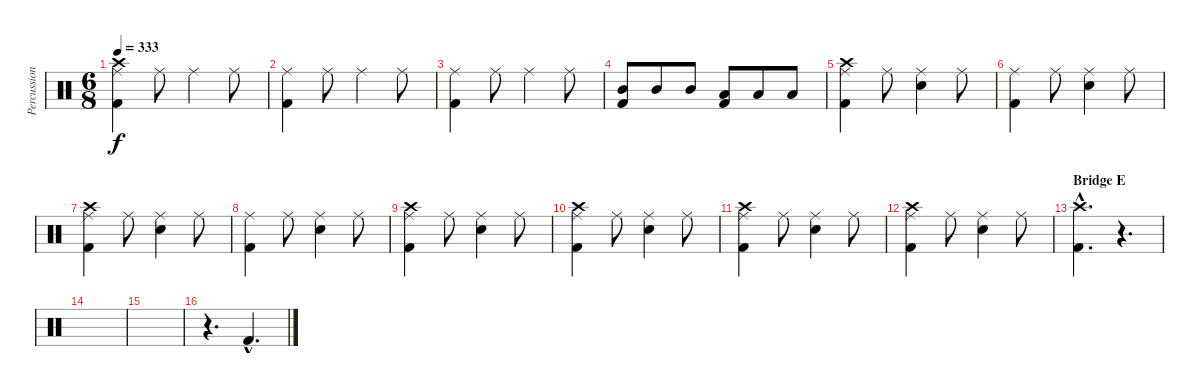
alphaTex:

\track ("Percussion" "Percussion") {instrument percussion}
\staff {score}
\articulation defaults
\ts (6 8)
\tempo 333
\clef neutral
\ks c
("Crash high (hit)" "Ride (middle)" "Kick (hit) 2").4{dy f} "Ride (middle)".8 "Ride (middle)".4 "Ride (middle)".8 |
("Ride (middle)" "Kick (hit) 2").4 "Ride (middle)".8 "Ride (middle)".4 "Ride (middle)".8 |
("Ride (middle)" "Kick (hit) 2").4 "Ride (middle)".8 "Ride (middle)".4 "Ride (middle)".8 |
("Mid Tom (hit)" "Kick (hit) 2").8 "Mid Tom (hit)".8 "Mid Tom (hit)".8 ("Low Tom (hit)" "Kick (hit) 2").8 "Low Tom (hit)".8 "Low Tom (hit)".8 |
("Crash high (hit)" "Ride (middle)" "Kick (hit) 2").4 "Ride (middle)".8 ("Ride (middle)" "Electric Snare (hit)").4 "Ride (middle)".8 |
("Ride (middle)" "Kick (hit) 2").4 "Ride (middle)".8 ("Ride (middle)" "Electric Snare (hit)").4 "Ride (middle)".8 |
("Crash high (hit)" "Ride (middle)" "Kick (hit) 2").4 "Ride (middle)".8 ("Ride (middle)" "Electric Snare (hit)").4 "Ride (middle)".8 |
("Ride (middle)" "Kick (hit) 2").4 "Ride (middle)".8 ("Ride (middle)" "Electric Snare (hit)").4 "Ride (middle)".8 |
("Crash high (hit)" "Ride (middle)" "Kick (hit) 2").4 "Ride (middle)".8 ("Ride (middle)" "Electric Snare (hit)").4 "Ride (middle)".8 |
("Crash high (hit)" "Ride (middle)" "Kick (hit) 2").4 "Ride (middle)".8 ("Ride (middle)" "Electric Snare (hit)").4 "Ride (middle)".8 |
("Crash high (hit)" "Ride (middle)" "Kick (hit) 2").4 "Ride (middle)".8 ("Ride (middle)" "Electric Snare (hit)").4 "Ride (middle)".8 |
("Crash high (hit)" "Ride (middle)" "Kick (hit) 2").4 "Ride (middle)".8 ("Ride (middle)" "Electric Snare (hit)").4 "Ride (middle)".8 |
\section ("" "Bridge E")
("Crash high (hit)"{hac} "Kick (hit) 2"{hac}).4{d} r.4{d} |
|
|
r.4{d} "Kick (hit) 2"{hac}.4{d}
